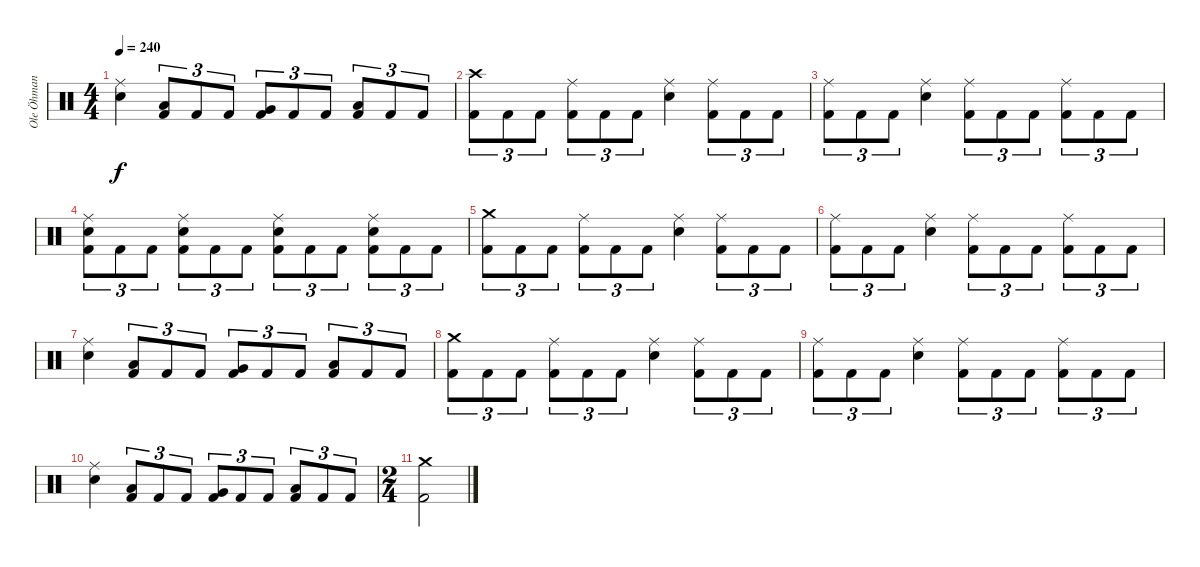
\track ("Ole Öhman" "Ole Öhman") {instrument percussion}
\staff {score}
\articulation defaults
\ts (4 4)
\tempo 240
\clef neutral
\ks c
("Ride (middle)" "Electric Snare (hit)").4{dy f} ("Low Tom (hit)" "Kick (hit) 2").8{tu (3 2)} "Kick (hit) 2".8{tu (3 2)} "Kick (hit) 2".8{tu (3 2)} ("Very Low Tom (hit)" "Kick (hit) 2").8{tu (3 2)} "Kick (hit) 2".8{tu (3 2)} "Kick (hit) 2".8{tu (3 2)} ("Low Floor Tom (hit)" "Kick (hit) 2").8{tu (3 2)} "Kick (hit) 2".8{tu (3 2)} "Kick (hit) 2".8{tu (3 2)} |
("Crash high (hit)" "Kick (hit) 2").8{tu (3 2)} "Kick (hit) 2".8{tu (3 2)} "Kick (hit) 2".8{tu (3 2)} ("Ride (middle)" "Kick (hit) 2").8{tu (3 2)} "Kick (hit) 2".8{tu (3 2)} "Kick (hit) 2".8{tu (3 2)} ("Ride (middle)" "Electric Snare (hit)").4 ("Ride (middle)" "Kick (hit) 2").8{tu (3 2)} "Kick (hit) 2".8{tu (3 2)} "Kick (hit) 2".8{tu (3 2)} |
("Ride (middle)" "Kick (hit) 2").8{tu (3 2)} "Kick (hit) 2".8{tu (3 2)} "Kick (hit) 2".8{tu (3 2)} ("Ride (middle)" "Electric Snare (hit)").4 ("Ride (middle)" "Kick (hit) 2").8{tu (3 2)} "Kick (hit) 2".8{tu (3 2)} "Kick (hit) 2".8{tu (3 2)} ("Ride (middle)" "Kick (hit) 2").8{tu (3 2)} "Kick (hit) 2".8{tu (3 2)} "Kick (hit) 2".8{tu (3 2)} |
("Ride (middle)" "Electric Snare (hit)" "Kick (hit) 2").8{tu (3 2)} "Kick (hit) 2".8{tu (3 2)} "Kick (hit) 2".8{tu (3 2)} ("Ride (middle)" "Electric Snare (hit)" "Kick (hit) 2").8{tu (3 2)} "Kick (hit) 2".8{tu (3 2)} "Kick (hit) 2".8{tu (3 2)} ("Ride (middle)" "Electric Snare (hit)" "Kick (hit) 2").8{tu (3 2)} "Kick (hit) 2".8{tu (3 2)} "Kick (hit) 2".8{tu (3 2)} ("Ride (middle)" "Electric Snare (hit)" "Kick (hit) 2").8{tu (3 2)} "Kick (hit) 2".8{tu (3 2)} "Kick (hit) 2".8{tu (3 2)} |
("Crash medium (hit)" "Kick (hit) 2").8{tu (3 2)} "Kick (hit) 2".8{tu (3 2)} "Kick (hit) 2".8{tu (3 2)} ("Ride (middle)" "Kick (hit) 2").8{tu (3 2)} "Kick (hit) 2".8{tu (3 2)} "Kick (hit) 2".8{tu (3 2)} ("Ride (middle)" "Electric Snare (hit)").4 ("Ride (middle)" "Kick (hit) 2").8{tu (3 2)} "Kick (hit) 2".8{tu (3 2)} "Kick (hit) 2".8{tu (3 2)} |
("Ride (middle)" "Kick (hit) 2").8{tu (3 2)} "Kick (hit) 2".8{tu (3 2)} "Kick (hit) 2".8{tu (3 2)} ("Ride (middle)" "Electric Snare (hit)").4 ("Ride (middle)" "Kick (hit) 2").8{tu (3 2)} "Kick (hit) 2".8{tu (3 2)} "Kick (hit) 2".8{tu (3 2)} ("Ride (middle)" "Kick (hit) 2").8{tu (3 2)} "Kick (hit) 2".8{tu (3 2)} "Kick (hit) 2".8{tu (3 2)} |
("Ride (middle)" "Electric Snare (hit)").4 ("Low Tom (hit)" "Kick (hit) 2").8{tu (3 2)} "Kick (hit) 2".8{tu (3 2)} "Kick (hit) 2".8{tu (3 2)} ("Very Low Tom (hit)" "Kick (hit) 2").8{tu (3 2)} "Kick (hit) 2".8{tu (3 2)} "Kick (hit) 2".8{tu (3 2)} ("Low Floor Tom (hit)" "Kick (hit) 2").8{tu (3 2)} "Kick (hit) 2".8{tu (3 2)} "Kick (hit) 2".8{tu (3 2)} |
("Crash medium (hit)" "Kick (hit) 2").8{tu (3 2)} "Kick (hit) 2".8{tu (3 2)} "Kick (hit) 2".8{tu (3 2)} ("Ride (middle)" "Kick (hit) 2").8{tu (3 2)} "Kick (hit) 2".8{tu (3 2)} "Kick (hit) 2".8{tu (3 2)} ("Ride (middle)" "Electric Snare (hit)").4 ("Ride (middle)" "Kick (hit) 2").8{tu (3 2)} "Kick (hit) 2".8{tu (3 2)} "Kick (hit) 2".8{tu (3 2)} |
("Ride (middle)" "Kick (hit) 2").8{tu (3 2)} "Kick (hit) 2".8{tu (3 2)} "Kick (hit) 2".8{tu (3 2)} ("Ride (middle)" "Electric Snare (hit)").4 ("Ride (middle)" "Kick (hit) 2").8{tu (3 2)} "Kick (hit) 2".8{tu (3 2)} "Kick (hit) 2".8{tu (3 2)} ("Ride (middle)" "Kick (hit) 2").8{tu (3 2)} "Kick (hit) 2".8{tu (3 2)} "Kick (hit) 2".8{tu (3 2)} |
("Ride (middle)" "Electric Snare (hit)").4 ("Low Tom (hit)" "Kick (hit) 2").8{tu (3 2)} "Kick (hit) 2".8{tu (3 2)} "Kick (hit) 2".8{tu (3 2)} ("Very Low Tom (hit)" "Kick (hit) 2").8{tu (3 2)} "Kick (hit) 2".8{tu (3 2)} "Kick (hit) 2".8{tu (3 2)} ("Low Floor Tom (hit)" "Kick (hit) 2").8{tu (3 2)} "Kick (hit) 2".8{tu (3 2)} "Kick (hit) 2".8{tu (3 2)} |
\ts (2 4)
("Crash medium (hit)" "Kick (hit) 2").2
